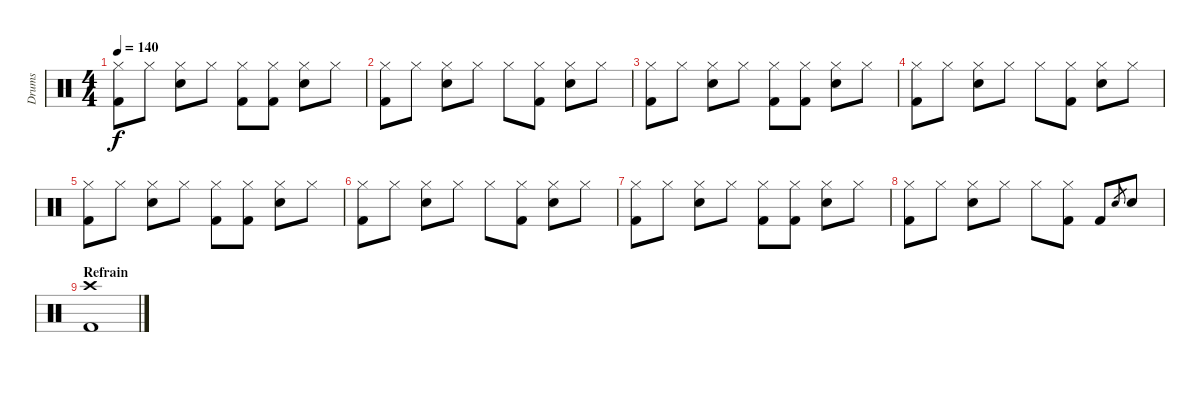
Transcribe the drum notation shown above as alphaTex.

\track ("Drums" "Drums") {instrument percussion}
\staff {score}
\articulation defaults
\ts (4 4)
\tempo 140
\clef neutral
\ks c
("Hi-Hat (closed)" "Kick (hit) 2").8{dy f} "Hi-Hat (closed)".8 ("Hi-Hat (closed)" "Electric Snare (hit)").8 "Hi-Hat (closed)".8 ("Hi-Hat (closed)" "Kick (hit) 2").8 ("Hi-Hat (closed)" "Kick (hit) 2").8 ("Hi-Hat (closed)" "Electric Snare (hit)").8 "Hi-Hat (closed)".8 |
("Hi-Hat (closed)" "Kick (hit) 2").8 "Hi-Hat (closed)".8 ("Hi-Hat (closed)" "Electric Snare (hit)").8 "Hi-Hat (closed)".8 "Hi-Hat (closed)".8 ("Hi-Hat (closed)" "Kick (hit) 2").8 ("Hi-Hat (closed)" "Electric Snare (hit)").8 "Hi-Hat (closed)".8 |
("Hi-Hat (closed)" "Kick (hit) 2").8 "Hi-Hat (closed)".8 ("Hi-Hat (closed)" "Electric Snare (hit)").8 "Hi-Hat (closed)".8 ("Hi-Hat (closed)" "Kick (hit) 2").8 ("Hi-Hat (closed)" "Kick (hit) 2").8 ("Hi-Hat (closed)" "Electric Snare (hit)").8 "Hi-Hat (closed)".8 |
("Hi-Hat (closed)" "Kick (hit) 2").8 "Hi-Hat (closed)".8 ("Hi-Hat (closed)" "Electric Snare (hit)").8 "Hi-Hat (closed)".8 "Hi-Hat (closed)".8 ("Hi-Hat (closed)" "Kick (hit) 2").8 ("Hi-Hat (closed)" "Electric Snare (hit)").8 "Hi-Hat (closed)".8 |
("Hi-Hat (closed)" "Kick (hit) 2").8 "Hi-Hat (closed)".8 ("Hi-Hat (closed)" "Electric Snare (hit)").8 "Hi-Hat (closed)".8 ("Hi-Hat (closed)" "Kick (hit) 2").8 ("Hi-Hat (closed)" "Kick (hit) 2").8 ("Hi-Hat (closed)" "Electric Snare (hit)").8 "Hi-Hat (closed)".8 |
("Hi-Hat (closed)" "Kick (hit) 2").8 "Hi-Hat (closed)".8 ("Hi-Hat (closed)" "Electric Snare (hit)").8 "Hi-Hat (closed)".8 "Hi-Hat (closed)".8 ("Hi-Hat (closed)" "Kick (hit) 2").8 ("Hi-Hat (closed)" "Electric Snare (hit)").8 "Hi-Hat (closed)".8 |
("Hi-Hat (closed)" "Kick (hit) 2").8 "Hi-Hat (closed)".8 ("Hi-Hat (closed)" "Electric Snare (hit)").8 "Hi-Hat (closed)".8 ("Hi-Hat (closed)" "Kick (hit) 2").8 ("Hi-Hat (closed)" "Kick (hit) 2").8 ("Hi-Hat (closed)" "Electric Snare (hit)").8 "Hi-Hat (closed)".8 |
("Hi-Hat (closed)" "Kick (hit) 2").8 "Hi-Hat (closed)".8 ("Hi-Hat (closed)" "Electric Snare (hit)").8 "Hi-Hat (closed)".8 "Hi-Hat (closed)".8 ("Hi-Hat (closed)" "Kick (hit) 2").8 "Kick (hit) 2".8 "Electric Snare (hit)".8{gr} "Electric Snare (hit)".8 |
\section ("" "Refrain")
("Crash high (hit)" "Kick (hit) 2").1
